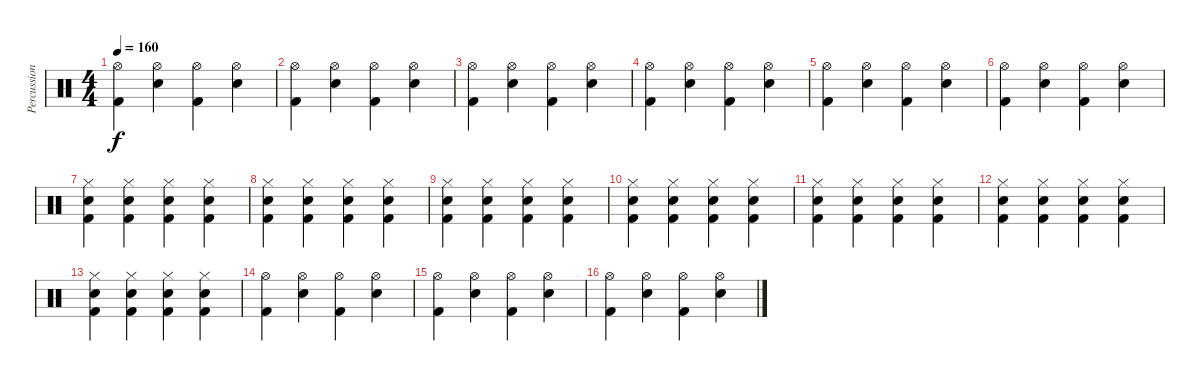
\track ("Percussion" "Percussion") {instrument percussion}
\staff {score}
\articulation defaults
\ts (4 4)
\tempo 160
\clef neutral
\ks c
("Hi-Hat (open)" "Kick (hit) 2").4{dy f} ("Hi-Hat (open)" "Snare (hit) 2").4 ("Hi-Hat (open)" "Kick (hit) 2").4 ("Hi-Hat (open)" "Snare (hit) 2").4 |
("Hi-Hat (open)" "Kick (hit) 2").4 ("Hi-Hat (open)" "Snare (hit) 2").4 ("Hi-Hat (open)" "Kick (hit) 2").4 ("Hi-Hat (open)" "Snare (hit) 2").4 |
("Hi-Hat (open)" "Kick (hit) 2").4 ("Hi-Hat (open)" "Snare (hit) 2").4 ("Hi-Hat (open)" "Kick (hit) 2").4 ("Hi-Hat (open)" "Snare (hit) 2").4 |
("Hi-Hat (open)" "Kick (hit) 2").4 ("Hi-Hat (open)" "Snare (hit) 2").4 ("Hi-Hat (open)" "Kick (hit) 2").4 ("Hi-Hat (open)" "Snare (hit) 2").4 |
("Hi-Hat (open)" "Kick (hit) 2").4 ("Hi-Hat (open)" "Snare (hit) 2").4 ("Hi-Hat (open)" "Kick (hit) 2").4 ("Hi-Hat (open)" "Snare (hit) 2").4 |
("Hi-Hat (open)" "Kick (hit) 2").4 ("Hi-Hat (open)" "Snare (hit) 2").4 ("Hi-Hat (open)" "Kick (hit) 2").4 ("Hi-Hat (open)" "Snare (hit) 2").4 |
("Hi-Hat (closed)" "Snare (hit) 2" "Kick (hit) 2").4 ("Hi-Hat (closed)" "Snare (hit) 2" "Kick (hit) 2").4 ("Hi-Hat (closed)" "Snare (hit) 2" "Kick (hit) 2").4 ("Hi-Hat (closed)" "Snare (hit) 2" "Kick (hit) 2").4 |
("Hi-Hat (closed)" "Snare (hit) 2" "Kick (hit) 2").4 ("Hi-Hat (closed)" "Snare (hit) 2" "Kick (hit) 2").4 ("Hi-Hat (closed)" "Snare (hit) 2" "Kick (hit) 2").4 ("Hi-Hat (closed)" "Snare (hit) 2" "Kick (hit) 2").4 |
("Hi-Hat (closed)" "Snare (hit) 2" "Kick (hit) 2").4 ("Hi-Hat (closed)" "Snare (hit) 2" "Kick (hit) 2").4 ("Hi-Hat (closed)" "Snare (hit) 2" "Kick (hit) 2").4 ("Hi-Hat (closed)" "Snare (hit) 2" "Kick (hit) 2").4 |
("Hi-Hat (closed)" "Snare (hit) 2" "Kick (hit) 2").4 ("Hi-Hat (closed)" "Snare (hit) 2" "Kick (hit) 2").4 ("Hi-Hat (closed)" "Snare (hit) 2" "Kick (hit) 2").4 ("Hi-Hat (closed)" "Snare (hit) 2" "Kick (hit) 2").4 |
("Hi-Hat (closed)" "Snare (hit) 2" "Kick (hit) 2").4 ("Hi-Hat (closed)" "Snare (hit) 2" "Kick (hit) 2").4 ("Hi-Hat (closed)" "Snare (hit) 2" "Kick (hit) 2").4 ("Hi-Hat (closed)" "Snare (hit) 2" "Kick (hit) 2").4 |
("Hi-Hat (closed)" "Snare (hit) 2" "Kick (hit) 2").4 ("Hi-Hat (closed)" "Snare (hit) 2" "Kick (hit) 2").4 ("Hi-Hat (closed)" "Snare (hit) 2" "Kick (hit) 2").4 ("Hi-Hat (closed)" "Snare (hit) 2" "Kick (hit) 2").4 |
("Hi-Hat (closed)" "Snare (hit) 2" "Kick (hit) 2").4 ("Hi-Hat (closed)" "Snare (hit) 2" "Kick (hit) 2").4 ("Hi-Hat (closed)" "Snare (hit) 2" "Kick (hit) 2").4 ("Hi-Hat (closed)" "Snare (hit) 2" "Kick (hit) 2").4 |
("Hi-Hat (open)" "Kick (hit) 2").4 ("Hi-Hat (open)" "Snare (hit) 2").4 ("Hi-Hat (open)" "Kick (hit) 2").4 ("Hi-Hat (open)" "Snare (hit) 2").4 |
("Hi-Hat (open)" "Kick (hit) 2").4 ("Hi-Hat (open)" "Snare (hit) 2").4 ("Hi-Hat (open)" "Kick (hit) 2").4 ("Hi-Hat (open)" "Snare (hit) 2").4 |
("Hi-Hat (open)" "Kick (hit) 2").4 ("Hi-Hat (open)" "Snare (hit) 2").4 ("Hi-Hat (open)" "Kick (hit) 2").4 ("Hi-Hat (open)" "Snare (hit) 2").4
